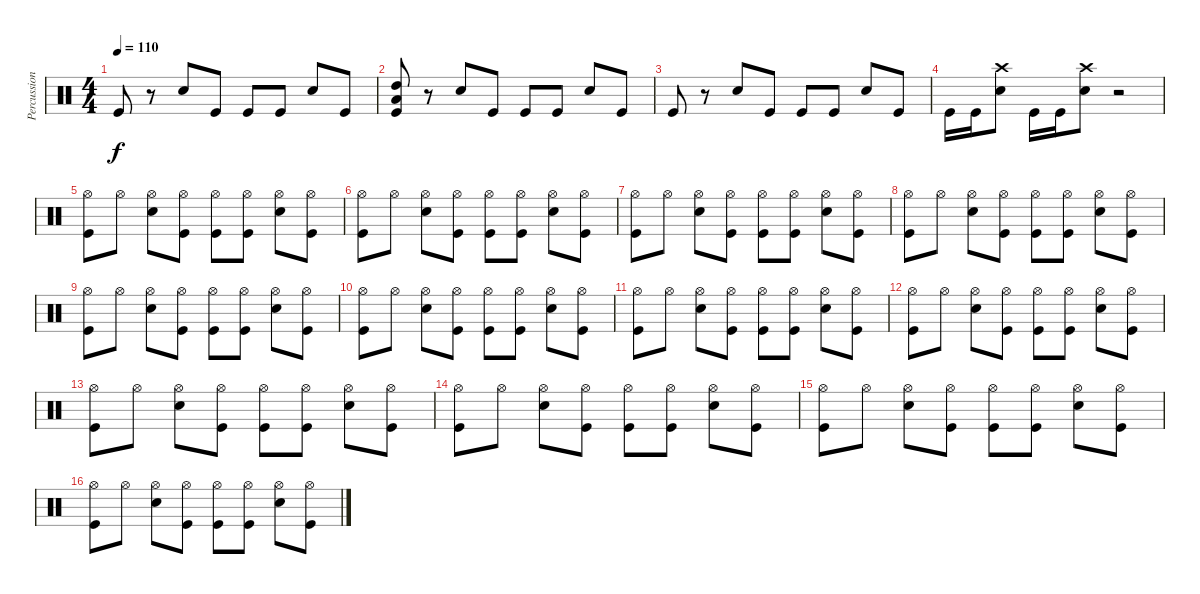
\track ("Percussion" "Percussion") {instrument percussion}
\staff {score}
\articulation defaults
\ts (4 4)
\tempo 110
\clef neutral
\ks c "Kick (hit)".8{dy f}
r.8 "Snare (hit) 2".8 "Kick (hit)".8 "Kick (hit)".8 "Kick (hit)".8 "Snare (hit) 2".8 "Kick (hit)".8 |
("Kick (hit)" "Low Tom (hit)" "High Tom (hit)").8 r.8 "Snare (hit) 2".8 "Kick (hit)".8 "Kick (hit)".8 "Kick (hit)".8 "Snare (hit) 2".8 "Kick (hit)".8 |
"Kick (hit)".8 r.8 "Snare (hit) 2".8 "Kick (hit)".8 "Kick (hit)".8 "Kick (hit)".8 "Snare (hit) 2".8 "Kick (hit)".8 |
"Kick (hit)".16 "Kick (hit)".16 ("Crash high (hit)" "Snare (hit) 2").8 "Kick (hit)".16 "Kick (hit)".16 ("Crash high (hit)" "Snare (hit) 2").8 r.2 |
("Hi-Hat (open)" "Kick (hit)").8 "Hi-Hat (open)".8 ("Snare (hit) 2" "Hi-Hat (open)").8 ("Hi-Hat (open)" "Kick (hit)").8 ("Hi-Hat (open)" "Kick (hit)").8 ("Hi-Hat (open)" "Kick (hit)").8 ("Snare (hit) 2" "Hi-Hat (open)").8 ("Hi-Hat (open)" "Kick (hit)").8 |
("Hi-Hat (open)" "Kick (hit)").8 "Hi-Hat (open)".8 ("Snare (hit) 2" "Hi-Hat (open)").8 ("Hi-Hat (open)" "Kick (hit)").8 ("Hi-Hat (open)" "Kick (hit)").8 ("Hi-Hat (open)" "Kick (hit)").8 ("Snare (hit) 2" "Hi-Hat (open)").8 ("Hi-Hat (open)" "Kick (hit)").8 |
("Hi-Hat (open)" "Kick (hit)").8 "Hi-Hat (open)".8 ("Snare (hit) 2" "Hi-Hat (open)").8 ("Hi-Hat (open)" "Kick (hit)").8 ("Hi-Hat (open)" "Kick (hit)").8 ("Hi-Hat (open)" "Kick (hit)").8 ("Snare (hit) 2" "Hi-Hat (open)").8 ("Hi-Hat (open)" "Kick (hit)").8 |
("Hi-Hat (open)" "Kick (hit)").8 "Hi-Hat (open)".8 ("Snare (hit) 2" "Hi-Hat (open)").8 ("Hi-Hat (open)" "Kick (hit)").8 ("Hi-Hat (open)" "Kick (hit)").8 ("Hi-Hat (open)" "Kick (hit)").8 ("Snare (hit) 2" "Hi-Hat (open)").8 ("Hi-Hat (open)" "Kick (hit)").8 |
("Hi-Hat (open)" "Kick (hit)").8 "Hi-Hat (open)".8 ("Snare (hit) 2" "Hi-Hat (open)").8 ("Hi-Hat (open)" "Kick (hit)").8 ("Hi-Hat (open)" "Kick (hit)").8 ("Hi-Hat (open)" "Kick (hit)").8 ("Snare (hit) 2" "Hi-Hat (open)").8 ("Hi-Hat (open)" "Kick (hit)").8 |
("Hi-Hat (open)" "Kick (hit)").8 "Hi-Hat (open)".8 ("Snare (hit) 2" "Hi-Hat (open)").8 ("Hi-Hat (open)" "Kick (hit)").8 ("Hi-Hat (open)" "Kick (hit)").8 ("Hi-Hat (open)" "Kick (hit)").8 ("Snare (hit) 2" "Hi-Hat (open)").8 ("Hi-Hat (open)" "Kick (hit)").8 |
("Hi-Hat (open)" "Kick (hit)").8 "Hi-Hat (open)".8 ("Snare (hit) 2" "Hi-Hat (open)").8 ("Hi-Hat (open)" "Kick (hit)").8 ("Hi-Hat (open)" "Kick (hit)").8 ("Hi-Hat (open)" "Kick (hit)").8 ("Snare (hit) 2" "Hi-Hat (open)").8 ("Hi-Hat (open)" "Kick (hit)").8 |
("Hi-Hat (open)" "Kick (hit)").8 "Hi-Hat (open)".8 ("Snare (hit) 2" "Hi-Hat (open)").8 ("Hi-Hat (open)" "Kick (hit)").8 ("Hi-Hat (open)" "Kick (hit)").8 ("Hi-Hat (open)" "Kick (hit)").8 ("Snare (hit) 2" "Hi-Hat (open)").8 ("Hi-Hat (open)" "Kick (hit)").8 |
("Hi-Hat (open)" "Kick (hit)").8 "Hi-Hat (open)".8 ("Snare (hit) 2" "Hi-Hat (open)").8 ("Hi-Hat (open)" "Kick (hit)").8 ("Hi-Hat (open)" "Kick (hit)").8 ("Hi-Hat (open)" "Kick (hit)").8 ("Snare (hit) 2" "Hi-Hat (open)").8 ("Hi-Hat (open)" "Kick (hit)").8 |
("Hi-Hat (open)" "Kick (hit)").8 "Hi-Hat (open)".8 ("Snare (hit) 2" "Hi-Hat (open)").8 ("Hi-Hat (open)" "Kick (hit)").8 ("Hi-Hat (open)" "Kick (hit)").8 ("Hi-Hat (open)" "Kick (hit)").8 ("Snare (hit) 2" "Hi-Hat (open)").8 ("Hi-Hat (open)" "Kick (hit)").8 |
("Hi-Hat (open)" "Kick (hit)").8 "Hi-Hat (open)".8 ("Snare (hit) 2" "Hi-Hat (open)").8 ("Hi-Hat (open)" "Kick (hit)").8 ("Hi-Hat (open)" "Kick (hit)").8 ("Hi-Hat (open)" "Kick (hit)").8 ("Snare (hit) 2" "Hi-Hat (open)").8 ("Hi-Hat (open)" "Kick (hit)").8 |
("Hi-Hat (open)" "Kick (hit)").8 "Hi-Hat (open)".8 ("Snare (hit) 2" "Hi-Hat (open)").8 ("Hi-Hat (open)" "Kick (hit)").8 ("Hi-Hat (open)" "Kick (hit)").8 ("Hi-Hat (open)" "Kick (hit)").8 ("Snare (hit) 2" "Hi-Hat (open)").8 ("Hi-Hat (open)" "Kick (hit)").8
